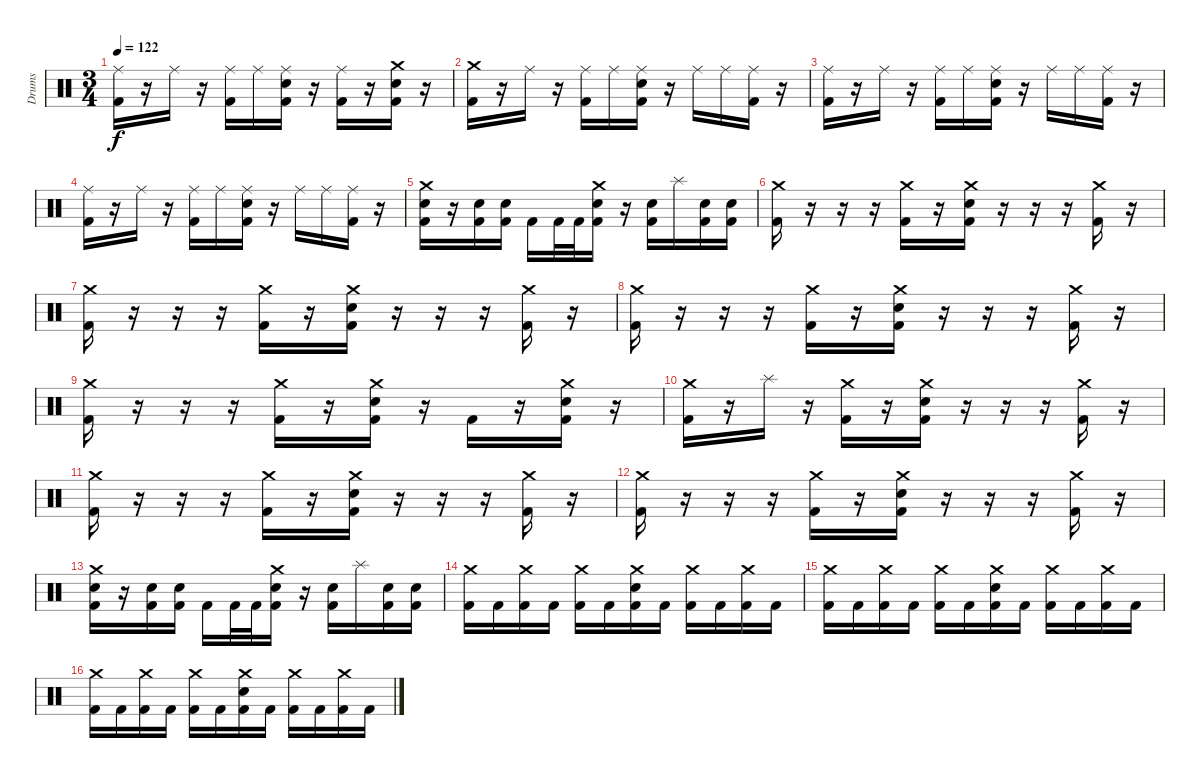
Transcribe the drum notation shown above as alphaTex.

\track ("Drums" "Drums") {instrument percussion}
\staff {score}
\articulation defaults
\ts (3 4)
\tempo 122
\clef neutral
\ks c
("Ride (middle)" "Kick (hit) 2").16{dy f} r.16 "Ride (middle)".16 r.16 ("Ride (middle)" "Kick (hit) 2").16 "Ride (middle)".16 ("Ride (middle)" "Electric Snare (hit)" "Kick (hit) 2").16 r.16 ("Ride (middle)" "Kick (hit) 2").16 r.16 ("Crash medium (hit)" "Electric Snare (hit)" "Kick (hit) 2").16 r.16 |
("Crash medium (hit)" "Kick (hit) 2").16 r.16 "Ride (middle)".16 r.16 ("Ride (middle)" "Kick (hit) 2").16 "Ride (middle)".16 ("Ride (middle)" "Electric Snare (hit)" "Kick (hit) 2").16 r.16 "Ride (middle)".16 "Ride (middle)".16 ("Ride (middle)" "Kick (hit) 2").16 r.16 |
("Ride (middle)" "Kick (hit) 2").16 r.16 "Ride (middle)".16 r.16 ("Ride (middle)" "Kick (hit) 2").16 "Ride (middle)".16 ("Ride (middle)" "Electric Snare (hit)" "Kick (hit) 2").16 r.16 "Ride (middle)".16 "Ride (middle)".16 ("Ride (middle)" "Kick (hit) 2").16 r.16 |
("Ride (middle)" "Kick (hit) 2").16 r.16 "Ride (middle)".16 r.16 ("Ride (middle)" "Kick (hit) 2").16 "Ride (middle)".16 ("Ride (middle)" "Electric Snare (hit)" "Kick (hit) 2").16 r.16 "Ride (middle)".16 "Ride (middle)".16 ("Ride (middle)" "Kick (hit) 2").16 r.16 |
("Crash medium (hit)" "Electric Snare (hit)" "Kick (hit) 2").16 r.16 ("Electric Snare (hit)" "Kick (hit) 2").16 ("Electric Snare (hit)" "Kick (hit) 2").16 "Kick (hit) 2".16 "Kick (hit) 2".32 "Kick (hit) 2".32 ("Crash medium (hit)" "Electric Snare (hit)" "Kick (hit) 2").16 r.16 ("Electric Snare (hit)" "Kick (hit) 2").16 "Splash (hit)".16 ("Electric Snare (hit)" "Kick (hit) 2").16 ("Electric Snare (hit)" "Kick (hit) 2").16 |
\section ("" "")
("Crash medium (hit)" "Kick (hit) 2").16 r.16 r.16 r.16 ("Crash medium (hit)" "Kick (hit) 2").16 r.16 ("Crash medium (hit)" "Electric Snare (hit)" "Kick (hit) 2").16 r.16 r.16 r.16 ("Crash medium (hit)" "Kick (hit) 2").16 r.16 |
("Crash medium (hit)" "Kick (hit) 2").16 r.16 r.16 r.16 ("Crash medium (hit)" "Kick (hit) 2").16 r.16 ("Crash medium (hit)" "Electric Snare (hit)" "Kick (hit) 2").16 r.16 r.16 r.16 ("Crash medium (hit)" "Kick (hit) 2").16 r.16 |
("Crash medium (hit)" "Kick (hit) 2").16 r.16 r.16 r.16 ("Crash medium (hit)" "Kick (hit) 2").16 r.16 ("Crash medium (hit)" "Electric Snare (hit)" "Kick (hit) 2").16 r.16 r.16 r.16 ("Crash medium (hit)" "Kick (hit) 2").16 r.16 |
("Crash medium (hit)" "Kick (hit) 2").16 r.16 r.16 r.16 ("Crash medium (hit)" "Kick (hit) 2").16 r.16 ("Crash medium (hit)" "Electric Snare (hit)" "Kick (hit) 2").16 r.16 "Kick (hit) 2".16 r.16 ("Crash medium (hit)" "Electric Snare (hit)" "Kick (hit) 2").16 r.16 |
("Crash medium (hit)" "Kick (hit) 2").16 r.16 "Splash (hit)".16 r.16 ("Crash medium (hit)" "Kick (hit) 2").16 r.16 ("Crash medium (hit)" "Electric Snare (hit)" "Kick (hit) 2").16 r.16 r.16 r.16 ("Crash medium (hit)" "Kick (hit) 2").16 r.16 |
("Crash medium (hit)" "Kick (hit) 2").16 r.16 r.16 r.16 ("Crash medium (hit)" "Kick (hit) 2").16 r.16 ("Crash medium (hit)" "Electric Snare (hit)" "Kick (hit) 2").16 r.16 r.16 r.16 ("Crash medium (hit)" "Kick (hit) 2").16 r.16 |
("Crash medium (hit)" "Kick (hit) 2").16 r.16 r.16 r.16 ("Crash medium (hit)" "Kick (hit) 2").16 r.16 ("Crash medium (hit)" "Electric Snare (hit)" "Kick (hit) 2").16 r.16 r.16 r.16 ("Crash medium (hit)" "Kick (hit) 2").16 r.16 |
("Crash medium (hit)" "Electric Snare (hit)" "Kick (hit) 2").16 r.16 ("Electric Snare (hit)" "Kick (hit) 2").16 ("Electric Snare (hit)" "Kick (hit) 2").16 "Kick (hit) 2".16 "Kick (hit) 2".32 "Kick (hit) 2".32 ("Crash medium (hit)" "Electric Snare (hit)" "Kick (hit) 2").16 r.16 ("Electric Snare (hit)" "Kick (hit) 2").16 "Splash (hit)".16 ("Electric Snare (hit)" "Kick (hit) 2").16 ("Electric Snare (hit)" "Kick (hit) 2").16 |
("Crash medium (hit)" "Kick (hit) 2").16 "Kick (hit) 2".16 ("Crash medium (hit)" "Kick (hit) 2").16 "Kick (hit) 2".16 ("Crash medium (hit)" "Kick (hit) 2").16 "Kick (hit) 2".16 ("Crash medium (hit)" "Electric Snare (hit)" "Kick (hit) 2").16 "Kick (hit) 2".16 ("Crash medium (hit)" "Kick (hit) 2").16 "Kick (hit) 2".16 ("Crash medium (hit)" "Kick (hit) 2").16 "Kick (hit) 2".16 |
("Crash medium (hit)" "Kick (hit) 2").16 "Kick (hit) 2".16 ("Crash medium (hit)" "Kick (hit) 2").16 "Kick (hit) 2".16 ("Crash medium (hit)" "Kick (hit) 2").16 "Kick (hit) 2".16 ("Crash medium (hit)" "Electric Snare (hit)" "Kick (hit) 2").16 "Kick (hit) 2".16 ("Crash medium (hit)" "Kick (hit) 2").16 "Kick (hit) 2".16 ("Crash medium (hit)" "Kick (hit) 2").16 "Kick (hit) 2".16 |
("Crash medium (hit)" "Kick (hit) 2").16 "Kick (hit) 2".16 ("Crash medium (hit)" "Kick (hit) 2").16 "Kick (hit) 2".16 ("Crash medium (hit)" "Kick (hit) 2").16 "Kick (hit) 2".16 ("Crash medium (hit)" "Electric Snare (hit)" "Kick (hit) 2").16 "Kick (hit) 2".16 ("Crash medium (hit)" "Kick (hit) 2").16 "Kick (hit) 2".16 ("Crash medium (hit)" "Kick (hit) 2").16 "Kick (hit) 2".16
